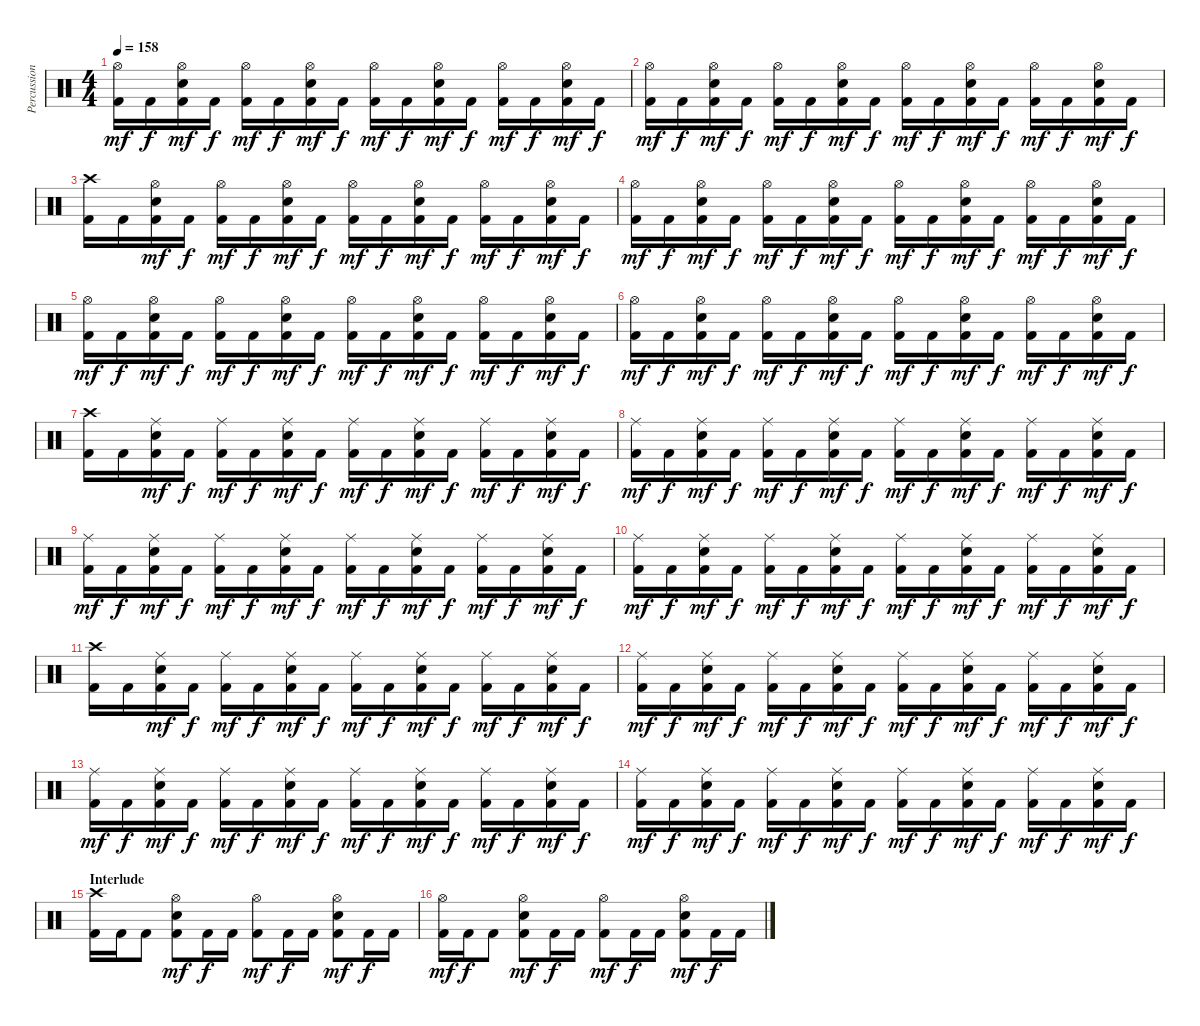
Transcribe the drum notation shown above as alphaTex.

\track ("Percussion" "Percussion") {instrument percussion}
\staff {score}
\articulation defaults
\ts (4 4)
\tempo 158
\clef neutral
\ks c
("Hi-Hat (open)" "Kick (hit) 2").16{dy mf} "Kick (hit) 2".16{dy f} ("Hi-Hat (open)" "Electric Snare (hit)" "Kick (hit) 2").16{dy mf} "Kick (hit) 2".16{dy f} ("Hi-Hat (open)" "Kick (hit) 2").16{dy mf} "Kick (hit) 2".16{dy f} ("Hi-Hat (open)" "Electric Snare (hit)" "Kick (hit) 2").16{dy mf} "Kick (hit) 2".16{dy f} ("Hi-Hat (open)" "Kick (hit) 2").16{dy mf} "Kick (hit) 2".16{dy f} ("Hi-Hat (open)" "Electric Snare (hit)" "Kick (hit) 2").16{dy mf} "Kick (hit) 2".16{dy f} ("Hi-Hat (open)" "Kick (hit) 2").16{dy mf} "Kick (hit) 2".16{dy f} ("Hi-Hat (open)" "Electric Snare (hit)" "Kick (hit) 2").16{dy mf} "Kick (hit) 2".16{dy f} |
("Hi-Hat (open)" "Kick (hit) 2").16{dy mf} "Kick (hit) 2".16{dy f} ("Hi-Hat (open)" "Electric Snare (hit)" "Kick (hit) 2").16{dy mf} "Kick (hit) 2".16{dy f} ("Hi-Hat (open)" "Kick (hit) 2").16{dy mf} "Kick (hit) 2".16{dy f} ("Hi-Hat (open)" "Electric Snare (hit)" "Kick (hit) 2").16{dy mf} "Kick (hit) 2".16{dy f} ("Hi-Hat (open)" "Kick (hit) 2").16{dy mf} "Kick (hit) 2".16{dy f} ("Hi-Hat (open)" "Electric Snare (hit)" "Kick (hit) 2").16{dy mf} "Kick (hit) 2".16{dy f} ("Hi-Hat (open)" "Kick (hit) 2").16{dy mf} "Kick (hit) 2".16{dy f} ("Hi-Hat (open)" "Electric Snare (hit)" "Kick (hit) 2").16{dy mf} "Kick (hit) 2".16{dy f} |
("Crash high (hit)" "Kick (hit) 2").16 "Kick (hit) 2".16 ("Hi-Hat (open)" "Electric Snare (hit)" "Kick (hit) 2").16{dy mf} "Kick (hit) 2".16{dy f} ("Hi-Hat (open)" "Kick (hit) 2").16{dy mf} "Kick (hit) 2".16{dy f} ("Hi-Hat (open)" "Electric Snare (hit)" "Kick (hit) 2").16{dy mf} "Kick (hit) 2".16{dy f} ("Hi-Hat (open)" "Kick (hit) 2").16{dy mf} "Kick (hit) 2".16{dy f} ("Hi-Hat (open)" "Electric Snare (hit)" "Kick (hit) 2").16{dy mf} "Kick (hit) 2".16{dy f} ("Hi-Hat (open)" "Kick (hit) 2").16{dy mf} "Kick (hit) 2".16{dy f} ("Hi-Hat (open)" "Electric Snare (hit)" "Kick (hit) 2").16{dy mf} "Kick (hit) 2".16{dy f} |
("Hi-Hat (open)" "Kick (hit) 2").16{dy mf} "Kick (hit) 2".16{dy f} ("Hi-Hat (open)" "Electric Snare (hit)" "Kick (hit) 2").16{dy mf} "Kick (hit) 2".16{dy f} ("Hi-Hat (open)" "Kick (hit) 2").16{dy mf} "Kick (hit) 2".16{dy f} ("Hi-Hat (open)" "Electric Snare (hit)" "Kick (hit) 2").16{dy mf} "Kick (hit) 2".16{dy f} ("Hi-Hat (open)" "Kick (hit) 2").16{dy mf} "Kick (hit) 2".16{dy f} ("Hi-Hat (open)" "Electric Snare (hit)" "Kick (hit) 2").16{dy mf} "Kick (hit) 2".16{dy f} ("Hi-Hat (open)" "Kick (hit) 2").16{dy mf} "Kick (hit) 2".16{dy f} ("Hi-Hat (open)" "Electric Snare (hit)" "Kick (hit) 2").16{dy mf} "Kick (hit) 2".16{dy f} |
("Hi-Hat (open)" "Kick (hit) 2").16{dy mf} "Kick (hit) 2".16{dy f} ("Hi-Hat (open)" "Electric Snare (hit)" "Kick (hit) 2").16{dy mf} "Kick (hit) 2".16{dy f} ("Hi-Hat (open)" "Kick (hit) 2").16{dy mf} "Kick (hit) 2".16{dy f} ("Hi-Hat (open)" "Electric Snare (hit)" "Kick (hit) 2").16{dy mf} "Kick (hit) 2".16{dy f} ("Hi-Hat (open)" "Kick (hit) 2").16{dy mf} "Kick (hit) 2".16{dy f} ("Hi-Hat (open)" "Electric Snare (hit)" "Kick (hit) 2").16{dy mf} "Kick (hit) 2".16{dy f} ("Hi-Hat (open)" "Kick (hit) 2").16{dy mf} "Kick (hit) 2".16{dy f} ("Hi-Hat (open)" "Electric Snare (hit)" "Kick (hit) 2").16{dy mf} "Kick (hit) 2".16{dy f} |
("Hi-Hat (open)" "Kick (hit) 2").16{dy mf} "Kick (hit) 2".16{dy f} ("Hi-Hat (open)" "Electric Snare (hit)" "Kick (hit) 2").16{dy mf} "Kick (hit) 2".16{dy f} ("Hi-Hat (open)" "Kick (hit) 2").16{dy mf} "Kick (hit) 2".16{dy f} ("Hi-Hat (open)" "Electric Snare (hit)" "Kick (hit) 2").16{dy mf} "Kick (hit) 2".16{dy f} ("Hi-Hat (open)" "Kick (hit) 2").16{dy mf} "Kick (hit) 2".16{dy f} ("Hi-Hat (open)" "Electric Snare (hit)" "Kick (hit) 2").16{dy mf} "Kick (hit) 2".16{dy f} ("Hi-Hat (open)" "Kick (hit) 2").16{dy mf} "Kick (hit) 2".16{dy f} ("Hi-Hat (open)" "Electric Snare (hit)" "Kick (hit) 2").16{dy mf} "Kick (hit) 2".16{dy f} |
("Crash high (hit)" "Kick (hit) 2").16 "Kick (hit) 2".16 ("Ride (middle)" "Electric Snare (hit)" "Kick (hit) 2").16{dy mf} "Kick (hit) 2".16{dy f} ("Ride (middle)" "Kick (hit) 2").16{dy mf} "Kick (hit) 2".16{dy f} ("Ride (middle)" "Electric Snare (hit)" "Kick (hit) 2").16{dy mf} "Kick (hit) 2".16{dy f} ("Ride (middle)" "Kick (hit) 2").16{dy mf} "Kick (hit) 2".16{dy f} ("Ride (middle)" "Electric Snare (hit)" "Kick (hit) 2").16{dy mf} "Kick (hit) 2".16{dy f} ("Ride (middle)" "Kick (hit) 2").16{dy mf} "Kick (hit) 2".16{dy f} ("Ride (middle)" "Electric Snare (hit)" "Kick (hit) 2").16{dy mf} "Kick (hit) 2".16{dy f} |
("Ride (middle)" "Kick (hit) 2").16{dy mf} "Kick (hit) 2".16{dy f} ("Ride (middle)" "Electric Snare (hit)" "Kick (hit) 2").16{dy mf} "Kick (hit) 2".16{dy f} ("Ride (middle)" "Kick (hit) 2").16{dy mf} "Kick (hit) 2".16{dy f} ("Ride (middle)" "Electric Snare (hit)" "Kick (hit) 2").16{dy mf} "Kick (hit) 2".16{dy f} ("Ride (middle)" "Kick (hit) 2").16{dy mf} "Kick (hit) 2".16{dy f} ("Ride (middle)" "Electric Snare (hit)" "Kick (hit) 2").16{dy mf} "Kick (hit) 2".16{dy f} ("Ride (middle)" "Kick (hit) 2").16{dy mf} "Kick (hit) 2".16{dy f} ("Ride (middle)" "Electric Snare (hit)" "Kick (hit) 2").16{dy mf} "Kick (hit) 2".16{dy f} |
("Ride (middle)" "Kick (hit) 2").16{dy mf} "Kick (hit) 2".16{dy f} ("Ride (middle)" "Electric Snare (hit)" "Kick (hit) 2").16{dy mf} "Kick (hit) 2".16{dy f} ("Ride (middle)" "Kick (hit) 2").16{dy mf} "Kick (hit) 2".16{dy f} ("Ride (middle)" "Electric Snare (hit)" "Kick (hit) 2").16{dy mf} "Kick (hit) 2".16{dy f} ("Ride (middle)" "Kick (hit) 2").16{dy mf} "Kick (hit) 2".16{dy f} ("Ride (middle)" "Electric Snare (hit)" "Kick (hit) 2").16{dy mf} "Kick (hit) 2".16{dy f} ("Ride (middle)" "Kick (hit) 2").16{dy mf} "Kick (hit) 2".16{dy f} ("Ride (middle)" "Electric Snare (hit)" "Kick (hit) 2").16{dy mf} "Kick (hit) 2".16{dy f} |
("Ride (middle)" "Kick (hit) 2").16{dy mf} "Kick (hit) 2".16{dy f} ("Ride (middle)" "Electric Snare (hit)" "Kick (hit) 2").16{dy mf} "Kick (hit) 2".16{dy f} ("Ride (middle)" "Kick (hit) 2").16{dy mf} "Kick (hit) 2".16{dy f} ("Ride (middle)" "Electric Snare (hit)" "Kick (hit) 2").16{dy mf} "Kick (hit) 2".16{dy f} ("Ride (middle)" "Kick (hit) 2").16{dy mf} "Kick (hit) 2".16{dy f} ("Ride (middle)" "Electric Snare (hit)" "Kick (hit) 2").16{dy mf} "Kick (hit) 2".16{dy f} ("Ride (middle)" "Kick (hit) 2").16{dy mf} "Kick (hit) 2".16{dy f} ("Ride (middle)" "Electric Snare (hit)" "Kick (hit) 2").16{dy mf} "Kick (hit) 2".16{dy f} |
("Crash high (hit)" "Kick (hit) 2").16 "Kick (hit) 2".16 ("Ride (middle)" "Electric Snare (hit)" "Kick (hit) 2").16{dy mf} "Kick (hit) 2".16{dy f} ("Ride (middle)" "Kick (hit) 2").16{dy mf} "Kick (hit) 2".16{dy f} ("Ride (middle)" "Electric Snare (hit)" "Kick (hit) 2").16{dy mf} "Kick (hit) 2".16{dy f} ("Ride (middle)" "Kick (hit) 2").16{dy mf} "Kick (hit) 2".16{dy f} ("Ride (middle)" "Electric Snare (hit)" "Kick (hit) 2").16{dy mf} "Kick (hit) 2".16{dy f} ("Ride (middle)" "Kick (hit) 2").16{dy mf} "Kick (hit) 2".16{dy f} ("Ride (middle)" "Electric Snare (hit)" "Kick (hit) 2").16{dy mf} "Kick (hit) 2".16{dy f} |
("Ride (middle)" "Kick (hit) 2").16{dy mf} "Kick (hit) 2".16{dy f} ("Ride (middle)" "Electric Snare (hit)" "Kick (hit) 2").16{dy mf} "Kick (hit) 2".16{dy f} ("Ride (middle)" "Kick (hit) 2").16{dy mf} "Kick (hit) 2".16{dy f} ("Ride (middle)" "Electric Snare (hit)" "Kick (hit) 2").16{dy mf} "Kick (hit) 2".16{dy f} ("Ride (middle)" "Kick (hit) 2").16{dy mf} "Kick (hit) 2".16{dy f} ("Ride (middle)" "Electric Snare (hit)" "Kick (hit) 2").16{dy mf} "Kick (hit) 2".16{dy f} ("Ride (middle)" "Kick (hit) 2").16{dy mf} "Kick (hit) 2".16{dy f} ("Ride (middle)" "Electric Snare (hit)" "Kick (hit) 2").16{dy mf} "Kick (hit) 2".16{dy f} |
("Ride (middle)" "Kick (hit) 2").16{dy mf} "Kick (hit) 2".16{dy f} ("Ride (middle)" "Electric Snare (hit)" "Kick (hit) 2").16{dy mf} "Kick (hit) 2".16{dy f} ("Ride (middle)" "Kick (hit) 2").16{dy mf} "Kick (hit) 2".16{dy f} ("Ride (middle)" "Electric Snare (hit)" "Kick (hit) 2").16{dy mf} "Kick (hit) 2".16{dy f} ("Ride (middle)" "Kick (hit) 2").16{dy mf} "Kick (hit) 2".16{dy f} ("Ride (middle)" "Electric Snare (hit)" "Kick (hit) 2").16{dy mf} "Kick (hit) 2".16{dy f} ("Ride (middle)" "Kick (hit) 2").16{dy mf} "Kick (hit) 2".16{dy f} ("Ride (middle)" "Electric Snare (hit)" "Kick (hit) 2").16{dy mf} "Kick (hit) 2".16{dy f} |
("Ride (middle)" "Kick (hit) 2").16{dy mf} "Kick (hit) 2".16{dy f} ("Ride (middle)" "Electric Snare (hit)" "Kick (hit) 2").16{dy mf} "Kick (hit) 2".16{dy f} ("Ride (middle)" "Kick (hit) 2").16{dy mf} "Kick (hit) 2".16{dy f} ("Ride (middle)" "Electric Snare (hit)" "Kick (hit) 2").16{dy mf} "Kick (hit) 2".16{dy f} ("Ride (middle)" "Kick (hit) 2").16{dy mf} "Kick (hit) 2".16{dy f} ("Ride (middle)" "Electric Snare (hit)" "Kick (hit) 2").16{dy mf} "Kick (hit) 2".16{dy f} ("Ride (middle)" "Kick (hit) 2").16{dy mf} "Kick (hit) 2".16{dy f} ("Ride (middle)" "Electric Snare (hit)" "Kick (hit) 2").16{dy mf} "Kick (hit) 2".16{dy f} |
\section ("" "Interlude")
("Crash high (hit)" "Kick (hit) 2").16 "Kick (hit) 2".16 "Kick (hit) 2".8 ("Hi-Hat (open)" "Electric Snare (hit)" "Kick (hit) 2").8{dy mf} "Kick (hit) 2".16{dy f} "Kick (hit) 2".16 ("Hi-Hat (open)" "Kick (hit) 2").8{dy mf} "Kick (hit) 2".16{dy f} "Kick (hit) 2".16 ("Hi-Hat (open)" "Electric Snare (hit)" "Kick (hit) 2").8{dy mf} "Kick (hit) 2".16{dy f} "Kick (hit) 2".16 |
("Hi-Hat (open)" "Kick (hit) 2").16{dy mf} "Kick (hit) 2".16{dy f} "Kick (hit) 2".8 ("Hi-Hat (open)" "Electric Snare (hit)" "Kick (hit) 2").8{dy mf} "Kick (hit) 2".16{dy f} "Kick (hit) 2".16 ("Hi-Hat (open)" "Kick (hit) 2").8{dy mf} "Kick (hit) 2".16{dy f} "Kick (hit) 2".16 ("Hi-Hat (open)" "Electric Snare (hit)" "Kick (hit) 2").8{dy mf} "Kick (hit) 2".16{dy f} "Kick (hit) 2".16
